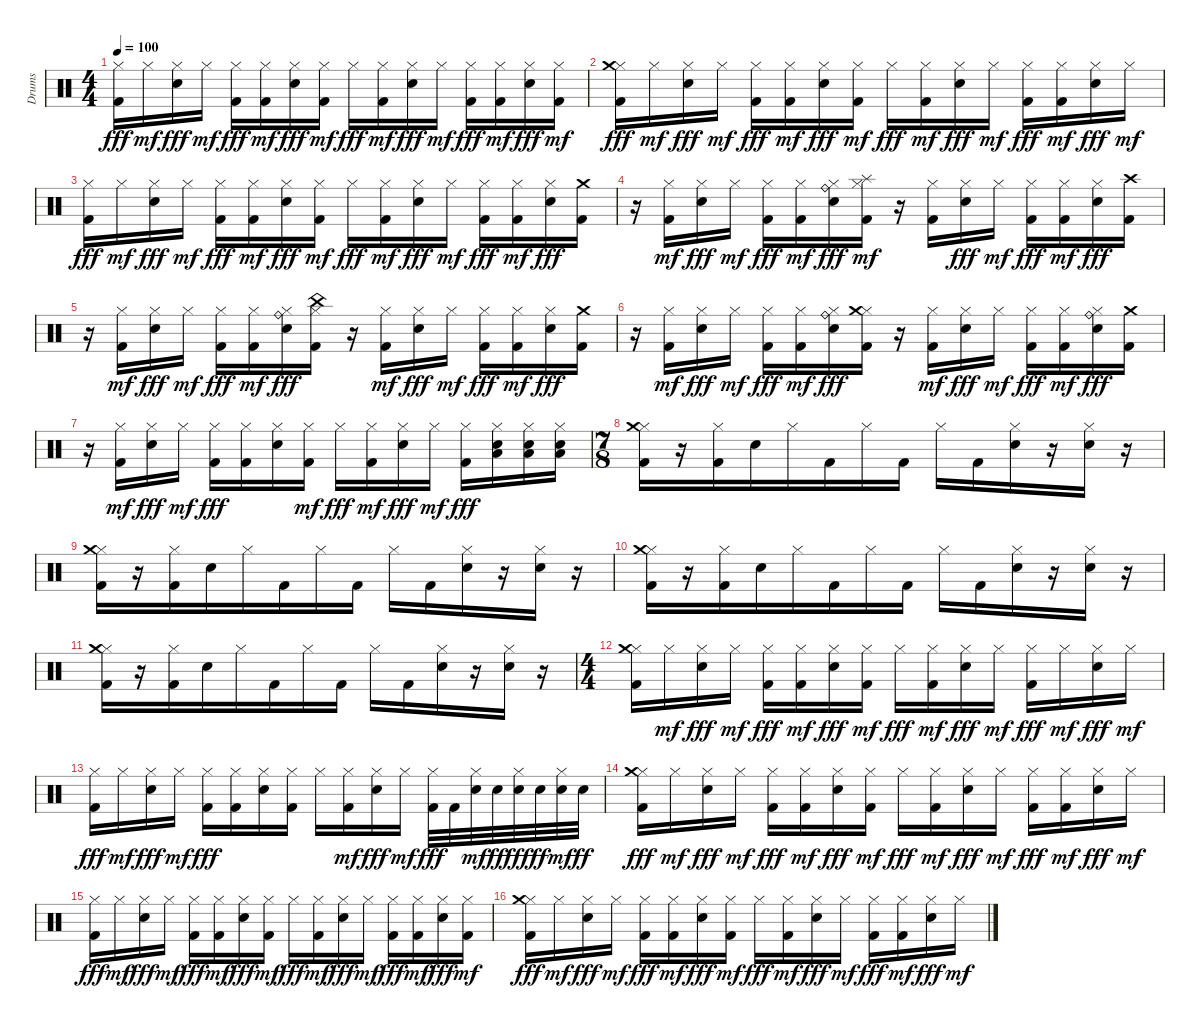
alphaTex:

\track ("Drums" "Drums") {instrument percussion}
\staff {score}
\articulation defaults
\ts (4 4)
\tempo 100
\clef neutral
\ks c
("Kick (hit) 2" "Hi-Hat (closed)").16{dy fff} "Hi-Hat (closed)".16{dy mf} ("Snare (hit) 2" "Hi-Hat (closed)").16{dy fff} "Hi-Hat (closed)".16{dy mf} ("Kick (hit) 2" "Hi-Hat (closed)").16{dy fff} ("Kick (hit) 2" "Hi-Hat (closed)").16{dy mf} ("Snare (hit) 2" "Hi-Hat (closed)").16{dy fff} ("Kick (hit) 2" "Hi-Hat (closed)").16{dy mf} "Hi-Hat (closed)".16{dy fff} ("Kick (hit) 2" "Hi-Hat (closed)").16{dy mf} ("Snare (hit) 2" "Hi-Hat (closed)").16{dy fff} "Hi-Hat (closed)".16{dy mf} ("Kick (hit) 2" "Hi-Hat (closed)").16{dy fff} ("Kick (hit) 2" "Hi-Hat (closed)").16{dy mf} ("Snare (hit) 2" "Hi-Hat (closed)").16{dy fff} ("Kick (hit) 2" "Hi-Hat (closed)").16{dy mf} |
("Kick (hit) 2" "Hi-Hat (closed)" "Crash medium (hit)").16{dy fff} "Hi-Hat (closed)".16{dy mf} ("Snare (hit) 2" "Hi-Hat (closed)").16{dy fff} "Hi-Hat (closed)".16{dy mf} ("Kick (hit) 2" "Hi-Hat (closed)").16{dy fff} ("Kick (hit) 2" "Hi-Hat (closed)").16{dy mf} ("Snare (hit) 2" "Hi-Hat (closed)").16{dy fff} ("Kick (hit) 2" "Hi-Hat (closed)").16{dy mf} "Hi-Hat (closed)".16{dy fff} ("Kick (hit) 2" "Hi-Hat (closed)").16{dy mf} ("Snare (hit) 2" "Hi-Hat (closed)").16{dy fff} "Hi-Hat (closed)".16{dy mf} ("Kick (hit) 2" "Hi-Hat (closed)").16{dy fff} ("Kick (hit) 2" "Hi-Hat (closed)").16{dy mf} ("Snare (hit) 2" "Hi-Hat (closed)").16{dy fff} "Hi-Hat (closed)".16{dy mf} |
("Kick (hit) 2" "Hi-Hat (closed)").16{dy fff} "Hi-Hat (closed)".16{dy mf} ("Snare (hit) 2" "Hi-Hat (closed)").16{dy fff} "Hi-Hat (closed)".16{dy mf} ("Kick (hit) 2" "Hi-Hat (closed)").16{dy fff} ("Kick (hit) 2" "Hi-Hat (closed)").16{dy mf} ("Snare (hit) 2" "Hi-Hat (closed)").16{dy fff} ("Kick (hit) 2" "Hi-Hat (closed)").16{dy mf} "Hi-Hat (closed)".16{dy fff} ("Kick (hit) 2" "Hi-Hat (closed)").16{dy mf} ("Snare (hit) 2" "Hi-Hat (closed)").16{dy fff} "Hi-Hat (closed)".16{dy mf} ("Kick (hit) 2" "Hi-Hat (closed)").16{dy fff} ("Kick (hit) 2" "Hi-Hat (closed)").16{dy mf} ("Snare (hit) 2" "Hi-Hat (closed)").16{dy fff} ("Kick (hit) 2" "Crash medium (hit)").16 |
r.16 ("Kick (hit) 2" "Hi-Hat (closed)").16{dy mf} ("Snare (hit) 2" "Hi-Hat (closed)").16{dy fff} "Hi-Hat (closed)".16{dy mf} ("Kick (hit) 2" "Hi-Hat (closed)").16{dy fff} ("Kick (hit) 2" "Hi-Hat (closed)").16{dy mf} ("Snare (hit) 2" "Hi-Hat (closed)" "Ride (bell)").16{dy fff} ("Splash (hit)" "Kick (hit) 2" "Hi-Hat (closed)").16{dy mf} r.16 ("Kick (hit) 2" "Hi-Hat (closed)").16 ("Snare (hit) 2" "Hi-Hat (closed)").16{dy fff} "Hi-Hat (closed)".16{dy mf} ("Kick (hit) 2" "Hi-Hat (closed)").16{dy fff} ("Kick (hit) 2" "Hi-Hat (closed)").16{dy mf} ("Snare (hit) 2" "Hi-Hat (closed)").16{dy fff} ("Kick (hit) 2" "Crash high (hit)").16 |
r.16 ("Kick (hit) 2" "Hi-Hat (closed)").16{dy mf} ("Snare (hit) 2" "Hi-Hat (closed)").16{dy fff} "Hi-Hat (closed)".16{dy mf} ("Kick (hit) 2" "Hi-Hat (closed)").16{dy fff} ("Kick (hit) 2" "Hi-Hat (closed)").16{dy mf} ("Snare (hit) 2" "Hi-Hat (closed)" "Ride (bell)").16{dy fff} ("Kick (hit) 2" "Hi-Hat (closed)" "China (hit)").16 r.16 ("Kick (hit) 2" "Hi-Hat (closed)").16{dy mf} ("Snare (hit) 2" "Hi-Hat (closed)").16{dy fff} "Hi-Hat (closed)".16{dy mf} ("Kick (hit) 2" "Hi-Hat (closed)").16{dy fff} ("Kick (hit) 2" "Hi-Hat (closed)").16{dy mf} ("Snare (hit) 2" "Hi-Hat (closed)").16{dy fff} ("Kick (hit) 2" "Crash medium (hit)").16 |
r.16 ("Kick (hit) 2" "Hi-Hat (closed)").16{dy mf} ("Snare (hit) 2" "Hi-Hat (closed)").16{dy fff} "Hi-Hat (closed)".16{dy mf} ("Kick (hit) 2" "Hi-Hat (closed)").16{dy fff} ("Kick (hit) 2" "Hi-Hat (closed)").16{dy mf} ("Snare (hit) 2" "Hi-Hat (closed)" "Ride (bell)").16{dy fff} ("Kick (hit) 2" "Hi-Hat (closed)" "Crash medium (hit)").16 r.16 ("Kick (hit) 2" "Hi-Hat (closed)").16{dy mf} ("Snare (hit) 2" "Hi-Hat (closed)").16{dy fff} "Hi-Hat (closed)".16{dy mf} ("Kick (hit) 2" "Hi-Hat (closed)").16{dy fff} ("Kick (hit) 2" "Hi-Hat (closed)").16{dy mf} ("Snare (hit) 2" "Hi-Hat (closed)" "Ride (bell)").16{dy fff} ("Kick (hit) 2" "Crash medium (hit)").16 |
r.16 ("Kick (hit) 2" "Hi-Hat (closed)").16{dy mf} ("Snare (hit) 2" "Hi-Hat (closed)").16{dy fff} "Hi-Hat (closed)".16{dy mf} ("Kick (hit) 2" "Hi-Hat (closed)").16{dy fff} ("Hi-Hat (closed)" "Kick (hit) 2").16 ("Hi-Hat (closed)" "Snare (hit) 2").16 ("Kick (hit) 2" "Hi-Hat (closed)").16{dy mf} "Hi-Hat (closed)".16{dy fff} ("Kick (hit) 2" "Hi-Hat (closed)").16{dy mf} ("Snare (hit) 2" "Hi-Hat (closed)").16{dy fff} "Hi-Hat (closed)".16{dy mf} ("Kick (hit) 2" "Hi-Hat (closed)").16{dy fff} ("Hi-Hat (closed)" "Snare (hit) 2" "Low Tom (hit)").16 ("Snare (hit) 2" "Low Tom (hit)" "Hi-Hat (closed)").16 ("Hi-Hat (closed)" "Snare (hit) 2" "Low Tom (hit)").16 |
\ts (7 8)
("Kick (hit) 2" "Hi-Hat (closed)" "Crash medium (hit)").16 r.16 ("Kick (hit) 2" "Hi-Hat (closed)").16 "Snare (hit) 2".16 "Hi-Hat (closed)".16 "Kick (hit) 2".16 "Hi-Hat (closed)".16 "Kick (hit) 2".16 "Hi-Hat (closed)".16 "Kick (hit) 2".16 ("Snare (hit) 2" "Hi-Hat (closed)").16 r.16 ("Snare (hit) 2" "Hi-Hat (closed)").16 r.16 |
("Kick (hit) 2" "Hi-Hat (closed)" "Crash medium (hit)").16 r.16 ("Kick (hit) 2" "Hi-Hat (closed)").16 "Snare (hit) 2".16 "Hi-Hat (closed)".16 "Kick (hit) 2".16 "Hi-Hat (closed)".16 "Kick (hit) 2".16 "Hi-Hat (closed)".16 "Kick (hit) 2".16 ("Snare (hit) 2" "Hi-Hat (closed)").16 r.16 ("Snare (hit) 2" "Hi-Hat (closed)").16 r.16 |
("Kick (hit) 2" "Hi-Hat (closed)" "Crash medium (hit)").16 r.16 ("Kick (hit) 2" "Hi-Hat (closed)").16 "Snare (hit) 2".16 "Hi-Hat (closed)".16 "Kick (hit) 2".16 "Hi-Hat (closed)".16 "Kick (hit) 2".16 "Hi-Hat (closed)".16 "Kick (hit) 2".16 ("Snare (hit) 2" "Hi-Hat (closed)").16 r.16 ("Snare (hit) 2" "Hi-Hat (closed)").16 r.16 |
("Kick (hit) 2" "Hi-Hat (closed)" "Crash medium (hit)").16 r.16 ("Kick (hit) 2" "Hi-Hat (closed)").16 "Snare (hit) 2".16 "Hi-Hat (closed)".16 "Kick (hit) 2".16 "Hi-Hat (closed)".16 "Kick (hit) 2".16 "Hi-Hat (closed)".16 "Kick (hit) 2".16 ("Snare (hit) 2" "Hi-Hat (closed)").16 r.16 ("Snare (hit) 2" "Hi-Hat (closed)").16 r.16 |
\ts (4 4)
("Kick (hit) 2" "Hi-Hat (closed)" "Crash medium (hit)").16 "Hi-Hat (closed)".16{dy mf} ("Snare (hit) 2" "Hi-Hat (closed)").16{dy fff} "Hi-Hat (closed)".16{dy mf} ("Kick (hit) 2" "Hi-Hat (closed)").16{dy fff} ("Kick (hit) 2" "Hi-Hat (closed)").16{dy mf} ("Snare (hit) 2" "Hi-Hat (closed)").16{dy fff} ("Kick (hit) 2" "Hi-Hat (closed)").16{dy mf} "Hi-Hat (closed)".16{dy fff} ("Kick (hit) 2" "Hi-Hat (closed)").16{dy mf} ("Snare (hit) 2" "Hi-Hat (closed)").16{dy fff} "Hi-Hat (closed)".16{dy mf} ("Kick (hit) 2" "Hi-Hat (closed)").16{dy fff} "Hi-Hat (closed)".16{dy mf} ("Snare (hit) 2" "Hi-Hat (closed)").16{dy fff} "Hi-Hat (closed)".16{dy mf} |
("Kick (hit) 2" "Hi-Hat (closed)").16{dy fff} "Hi-Hat (closed)".16{dy mf} ("Snare (hit) 2" "Hi-Hat (closed)").16{dy fff} "Hi-Hat (closed)".16{dy mf} ("Hi-Hat (closed)" "Kick (hit) 2").16{dy fff} ("Hi-Hat (closed)" "Kick (hit) 2").16 ("Snare (hit) 2" "Hi-Hat (closed)").16 ("Hi-Hat (closed)" "Kick (hit) 2").16 "Hi-Hat (closed)".16 ("Kick (hit) 2" "Hi-Hat (closed)").16{dy mf} ("Hi-Hat (closed)" "Snare (hit) 2").16{dy fff} "Hi-Hat (closed)".16{dy mf} ("Kick (hit) 2" "Hi-Hat (closed)").32{dy fff} "Kick (hit) 2".32 ("Snare (hit) 2" "Hi-Hat (closed)").32{dy mf} "Snare (hit) 2".32{dy ff} ("Snare (hit) 2" "Hi-Hat (closed)").32{dy fff} "Snare (hit) 2".32{dy ff} ("Snare (hit) 2" "Hi-Hat (closed)").32{dy mf} "Snare (hit) 2".32{dy ff} |
("Kick (hit) 2" "Hi-Hat (closed)" "Crash medium (hit)").16{dy fff} "Hi-Hat (closed)".16{dy mf} ("Snare (hit) 2" "Hi-Hat (closed)").16{dy fff} "Hi-Hat (closed)".16{dy mf} ("Kick (hit) 2" "Hi-Hat (closed)").16{dy fff} ("Kick (hit) 2" "Hi-Hat (closed)").16{dy mf} ("Snare (hit) 2" "Hi-Hat (closed)").16{dy fff} ("Kick (hit) 2" "Hi-Hat (closed)").16{dy mf} "Hi-Hat (closed)".16{dy fff} ("Kick (hit) 2" "Hi-Hat (closed)").16{dy mf} ("Snare (hit) 2" "Hi-Hat (closed)").16{dy fff} "Hi-Hat (closed)".16{dy mf} ("Kick (hit) 2" "Hi-Hat (closed)").16{dy fff} ("Kick (hit) 2" "Hi-Hat (closed)").16{dy mf} ("Snare (hit) 2" "Hi-Hat (closed)").16{dy fff} "Hi-Hat (closed)".16{dy mf} |
("Kick (hit) 2" "Hi-Hat (closed)").16{dy fff} "Hi-Hat (closed)".16{dy mf} ("Snare (hit) 2" "Hi-Hat (closed)").16{dy fff} "Hi-Hat (closed)".16{dy mf} ("Kick (hit) 2" "Hi-Hat (closed)").16{dy fff} ("Kick (hit) 2" "Hi-Hat (closed)").16{dy mf} ("Snare (hit) 2" "Hi-Hat (closed)").16{dy fff} ("Kick (hit) 2" "Hi-Hat (closed)").16{dy mf} "Hi-Hat (closed)".16{dy fff} ("Kick (hit) 2" "Hi-Hat (closed)").16{dy mf} ("Snare (hit) 2" "Hi-Hat (closed)").16{dy fff} "Hi-Hat (closed)".16{dy mf} ("Kick (hit) 2" "Hi-Hat (closed)").16{dy fff} ("Kick (hit) 2" "Hi-Hat (closed)").16{dy mf} ("Snare (hit) 2" "Hi-Hat (closed)").16{dy fff} ("Kick (hit) 2" "Hi-Hat (closed)").16{dy mf} |
("Kick (hit) 2" "Hi-Hat (closed)" "Crash medium (hit)").16{dy fff} "Hi-Hat (closed)".16{dy mf} ("Snare (hit) 2" "Hi-Hat (closed)").16{dy fff} "Hi-Hat (closed)".16{dy mf} ("Kick (hit) 2" "Hi-Hat (closed)").16{dy fff} ("Kick (hit) 2" "Hi-Hat (closed)").16{dy mf} ("Snare (hit) 2" "Hi-Hat (closed)").16{dy fff} ("Kick (hit) 2" "Hi-Hat (closed)").16{dy mf} "Hi-Hat (closed)".16{dy fff} ("Kick (hit) 2" "Hi-Hat (closed)").16{dy mf} ("Snare (hit) 2" "Hi-Hat (closed)").16{dy fff} "Hi-Hat (closed)".16{dy mf} ("Kick (hit) 2" "Hi-Hat (closed)").16{dy fff} ("Kick (hit) 2" "Hi-Hat (closed)").16{dy mf} ("Snare (hit) 2" "Hi-Hat (closed)").16{dy fff} "Hi-Hat (closed)".16{dy mf}
